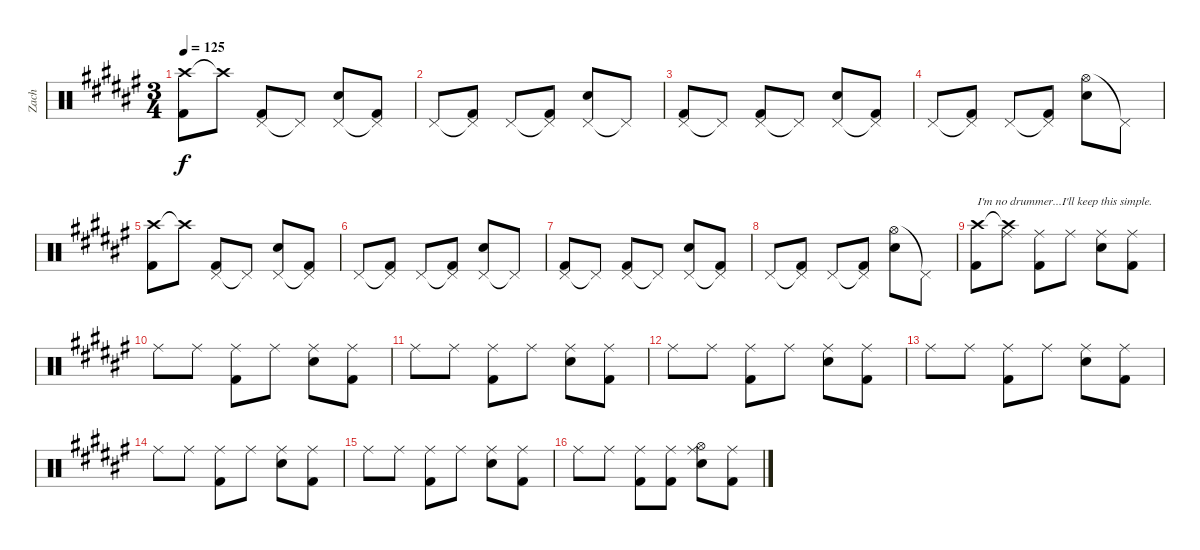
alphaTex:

\track ("Zach" "Zach") {instrument percussion}
\staff {score}
\articulation defaults
\ts (3 4)
\tempo 125
\clef neutral
\ks f#
("Crash high (hit)" "Kick (hit) 2").8{dy f} "Crash high (hit)"{t}.8 ("Pedal Hi-Hat (hit)" "Kick (hit) 2").8 "Pedal Hi-Hat (hit)"{t}.8 ("Pedal Hi-Hat (hit)" "Snare (hit) 2").8 ("Pedal Hi-Hat (hit)"{t} "Kick (hit) 2").8 |
"Pedal Hi-Hat (hit)".8 ("Pedal Hi-Hat (hit)"{t} "Kick (hit) 2").8 "Pedal Hi-Hat (hit)".8 ("Pedal Hi-Hat (hit)"{t} "Kick (hit) 2").8 ("Pedal Hi-Hat (hit)" "Snare (hit) 2").8 "Pedal Hi-Hat (hit)"{t}.8 |
("Pedal Hi-Hat (hit)" "Kick (hit) 2").8 "Pedal Hi-Hat (hit)"{t}.8 ("Pedal Hi-Hat (hit)" "Kick (hit) 2").8 "Pedal Hi-Hat (hit)"{t}.8 ("Pedal Hi-Hat (hit)" "Snare (hit) 2").8 ("Pedal Hi-Hat (hit)"{t} "Kick (hit) 2").8 |
"Pedal Hi-Hat (hit)".8 ("Pedal Hi-Hat (hit)"{t} "Kick (hit) 2").8 "Pedal Hi-Hat (hit)".8 ("Pedal Hi-Hat (hit)"{t} "Kick (hit) 2").8 ("Hi-Hat (open)" "Snare (hit) 2").8 "Pedal Hi-Hat (hit)"{t}.8 |
("Crash high (hit)" "Kick (hit) 2").8 "Crash high (hit)"{t}.8 ("Pedal Hi-Hat (hit)" "Kick (hit) 2").8 "Pedal Hi-Hat (hit)"{t}.8 ("Pedal Hi-Hat (hit)" "Snare (hit) 2").8 ("Pedal Hi-Hat (hit)"{t} "Kick (hit) 2").8 |
"Pedal Hi-Hat (hit)".8 ("Pedal Hi-Hat (hit)"{t} "Kick (hit) 2").8 "Pedal Hi-Hat (hit)".8 ("Pedal Hi-Hat (hit)"{t} "Kick (hit) 2").8 ("Pedal Hi-Hat (hit)" "Snare (hit) 2").8 "Pedal Hi-Hat (hit)"{t}.8 |
("Pedal Hi-Hat (hit)" "Kick (hit) 2").8 "Pedal Hi-Hat (hit)"{t}.8 ("Pedal Hi-Hat (hit)" "Kick (hit) 2").8 "Pedal Hi-Hat (hit)"{t}.8 ("Pedal Hi-Hat (hit)" "Snare (hit) 2").8 ("Pedal Hi-Hat (hit)"{t} "Kick (hit) 2").8 |
"Pedal Hi-Hat (hit)".8 ("Pedal Hi-Hat (hit)"{t} "Kick (hit) 2").8 "Pedal Hi-Hat (hit)".8 ("Pedal Hi-Hat (hit)"{t} "Kick (hit) 2").8 ("Hi-Hat (open)" "Snare (hit) 2").8 "Pedal Hi-Hat (hit)"{t}.8 |
("Crash high (hit)" "Kick (hit) 2").8{txt "I'm no drummer...I'll keep this simple."} ("Crash high (hit)"{t} "Ride (middle)").8 ("Ride (middle)" "Kick (hit) 2").8 "Ride (middle)".8 ("Ride (middle)" "Snare (hit) 2").8 ("Ride (middle)" "Kick (hit) 2").8 |
"Ride (middle)".8 "Ride (middle)".8 ("Ride (middle)" "Kick (hit) 2").8 "Ride (middle)".8 ("Ride (middle)" "Snare (hit) 2").8 ("Ride (middle)" "Kick (hit) 2").8 |
"Ride (middle)".8 "Ride (middle)".8 ("Ride (middle)" "Kick (hit) 2").8 "Ride (middle)".8 ("Ride (middle)" "Snare (hit) 2").8 ("Ride (middle)" "Kick (hit) 2").8 |
"Ride (middle)".8 "Ride (middle)".8 ("Ride (middle)" "Kick (hit) 2").8 "Ride (middle)".8 ("Ride (middle)" "Snare (hit) 2").8 ("Ride (middle)" "Kick (hit) 2").8 |
"Ride (middle)".8 "Ride (middle)".8 ("Ride (middle)" "Kick (hit) 2").8 "Ride (middle)".8 ("Ride (middle)" "Snare (hit) 2").8 ("Ride (middle)" "Kick (hit) 2").8 |
"Ride (middle)".8 "Ride (middle)".8 ("Ride (middle)" "Kick (hit) 2").8 "Ride (middle)".8 ("Ride (middle)" "Snare (hit) 2").8 ("Ride (middle)" "Kick (hit) 2").8 |
"Ride (middle)".8 "Ride (middle)".8 ("Ride (middle)" "Kick (hit) 2").8 "Ride (middle)".8 ("Ride (middle)" "Snare (hit) 2").8 ("Ride (middle)" "Kick (hit) 2").8 |
"Ride (middle)".8 "Ride (middle)".8 ("Ride (middle)" "Kick (hit) 2").8 ("Ride (middle)" "Kick (hit) 2").8 ("Hi-Hat (open)" "Ride (middle)" "Snare (hit) 2").8 ("Ride (middle)" "Kick (hit) 2").8
